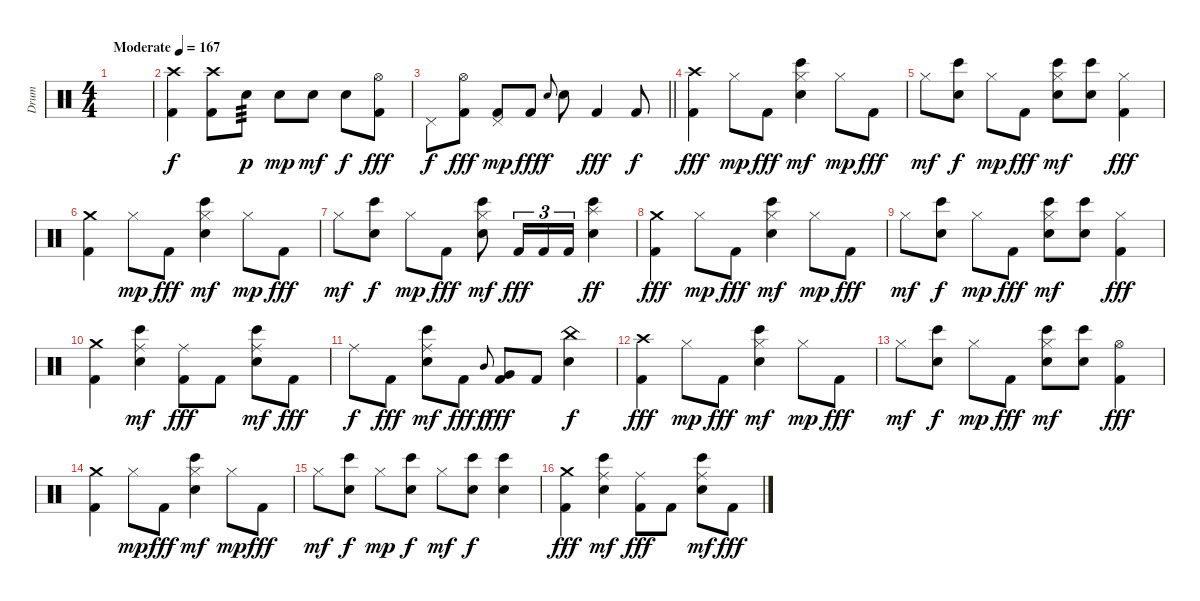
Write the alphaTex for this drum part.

\track ("Drum" "Drum") {instrument percussion}
\staff {score}
\articulation defaults
\ts (4 4)
\tempo (167 "Moderate")
\clef neutral
\ks c
|
("Crash high (hit)" "Kick (hit) 2").4 ("Crash high (hit)" "Kick (hit) 2").8 "Electric Snare (hit)".8{tp 3 dy p} "Electric Snare (hit)".8{dy mp} "Electric Snare (hit)".8{dy mf} "Electric Snare (hit)".8{dy f} ("Hi-Hat (open)" "Kick (hit) 2").8{dy fff} |
\barLineRight lightlight "Pedal Hi-Hat (hit)".8{dy f}
("Hi-Hat (open)" "Kick (hit) 2").8{dy fff} ("Pedal Hi-Hat (hit)" "Kick (hit) 2").8{dy mp} "Kick (hit) 2".8{dy fff} "Electric Snare (hit)".8{gr onbeat dy f} "Electric Snare (hit)".8 "Kick (hit) 2".4{dy fff} "Kick (hit) 2".8{dy f} |
("Crash high (hit)" "Kick (hit) 2").4{dy fff} "Hi-Hat (closed)".8{dy mp} "Kick (hit) 2".8{dy fff} ("Hi-Hat (closed)" "Bongo High (hit)" "Snare (hit) 2").4{dy mf} "Hi-Hat (closed)".8{dy mp} "Kick (hit) 2".8{dy fff} |
"Hi-Hat (closed)".8{dy mf} ("Bongo High (hit)" "Snare (hit) 2").8{dy f} "Hi-Hat (closed)".8{dy mp} "Kick (hit) 2".8{dy fff} ("Hi-Hat (closed)" "Bongo High (hit)" "Snare (hit) 2").8{dy mf} ("Bongo High (hit)" "Snare (hit) 2").8 ("Hi-Hat (closed)" "Kick (hit) 2").4{dy fff} |
("Crash medium (hit)" "Kick (hit) 2").4 "Hi-Hat (closed)".8{dy mp} "Kick (hit) 2".8{dy fff} ("Hi-Hat (closed)" "Bongo High (hit)" "Snare (hit) 2").4{dy mf} "Hi-Hat (closed)".8{dy mp} "Kick (hit) 2".8{dy fff} |
"Hi-Hat (closed)".8{dy mf} ("Bongo High (hit)" "Snare (hit) 2").8{dy f} "Hi-Hat (closed)".8{dy mp} "Kick (hit) 2".8{dy fff} ("Hi-Hat (closed)" "Bongo High (hit)" "Snare (hit) 2").8{dy mf} "Kick (hit) 2".16{tu (3 2) dy fff} "Kick (hit) 2".16{tu (3 2)} "Kick (hit) 2".16{tu (3 2)} ("Splash (hit)" "Bongo High (hit)" "Snare (hit) 2").4{dy ff} |
("Crash medium (hit)" "Kick (hit) 2").4{dy fff} "Hi-Hat (closed)".8{dy mp} "Kick (hit) 2".8{dy fff} ("Hi-Hat (closed)" "Bongo High (hit)" "Snare (hit) 2").4{dy mf} "Hi-Hat (closed)".8{dy mp} "Kick (hit) 2".8{dy fff} |
"Hi-Hat (closed)".8{dy mf} ("Bongo High (hit)" "Snare (hit) 2").8{dy f} "Hi-Hat (closed)".8{dy mp} "Kick (hit) 2".8{dy fff} ("Hi-Hat (closed)" "Bongo High (hit)" "Snare (hit) 2").8{dy mf} ("Bongo High (hit)" "Snare (hit) 2").8 ("Hi-Hat (closed)" "Kick (hit) 2").4{dy fff} |
("Crash medium (hit)" "Kick (hit) 2").4 ("Ride (middle)" "Bongo High (hit)" "Snare (hit) 2").4{dy mf} ("Ride (middle)" "Kick (hit) 2").8{dy fff} "Kick (hit) 2".8 ("Ride (middle)" "Bongo High (hit)" "Snare (hit) 2").8{dy mf} "Kick (hit) 2".8{dy fff} |
"Ride (middle)".8{dy f} "Kick (hit) 2".8{dy fff} ("Ride (middle)" "Bongo High (hit)" "Snare (hit) 2").8{dy mf} "Kick (hit) 2".8{dy fff} "Mid Tom (hit)".8{gr onbeat dy f} ("Very Low Tom (hit)" "Kick (hit) 2").8{dy fff} "Kick (hit) 2".8 ("China (hit)" "Electric Snare (hit)").4{dy f} |
("Crash high (hit)" "Kick (hit) 2").4{dy fff} "Hi-Hat (closed)".8{dy mp} "Kick (hit) 2".8{dy fff} ("Hi-Hat (closed)" "Bongo High (hit)" "Snare (hit) 2").4{dy mf} "Hi-Hat (closed)".8{dy mp} "Kick (hit) 2".8{dy fff} |
"Hi-Hat (closed)".8{dy mf} ("Bongo High (hit)" "Snare (hit) 2").8{dy f} "Hi-Hat (closed)".8{dy mp} "Kick (hit) 2".8{dy fff} ("Hi-Hat (closed)" "Bongo High (hit)" "Snare (hit) 2").8{dy mf} ("Bongo High (hit)" "Snare (hit) 2").8 ("Hi-Hat (open)" "Kick (hit) 2").4{dy fff} |
("Crash medium (hit)" "Kick (hit) 2").4 "Hi-Hat (closed)".8{dy mp} "Kick (hit) 2".8{dy fff} ("Hi-Hat (closed)" "Bongo High (hit)" "Snare (hit) 2").4{dy mf} "Hi-Hat (closed)".8{dy mp} "Kick (hit) 2".8{dy fff} |
"Hi-Hat (closed)".8{dy mf} ("Bongo High (hit)" "Snare (hit) 2").8{dy f} "Hi-Hat (closed)".8{dy mp} ("Bongo High (hit)" "Snare (hit) 2").8{dy f} "Hi-Hat (closed)".8{dy mf} ("Bongo High (hit)" "Snare (hit) 2").8{dy f} ("Bongo High (hit)" "Snare (hit) 2").4 |
("Crash medium (hit)" "Kick (hit) 2").4{dy fff} ("Ride (middle)" "Bongo High (hit)" "Snare (hit) 2").4{dy mf} ("Ride (middle)" "Kick (hit) 2").8{dy fff} "Kick (hit) 2".8 ("Ride (middle)" "Bongo High (hit)" "Snare (hit) 2").8{dy mf} "Kick (hit) 2".8{dy fff}
